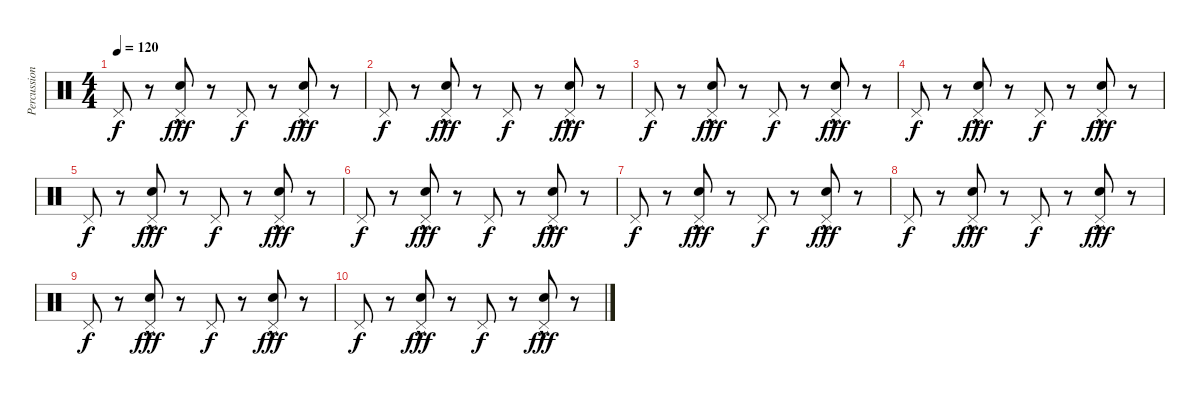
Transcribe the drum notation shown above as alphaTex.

\track ("Percussion" "Percussion") {instrument percussion}
\staff {score}
\articulation defaults
\ts (4 4)
\tempo 120
\clef neutral
\ks c "Pedal Hi-Hat (hit)".8{dy f}
r.8 ("Snare (hit) 2"{hac} "Pedal Hi-Hat (hit)").8{dy fff} r.8 "Pedal Hi-Hat (hit)".8{dy f} r.8 ("Snare (hit) 2"{hac} "Pedal Hi-Hat (hit)").8{dy fff} r.8 |
"Pedal Hi-Hat (hit)".8{dy f} r.8 ("Snare (hit) 2"{hac} "Pedal Hi-Hat (hit)").8{dy fff} r.8 "Pedal Hi-Hat (hit)".8{dy f} r.8 ("Snare (hit) 2"{hac} "Pedal Hi-Hat (hit)").8{dy fff} r.8 |
"Pedal Hi-Hat (hit)".8{dy f} r.8 ("Snare (hit) 2"{hac} "Pedal Hi-Hat (hit)").8{dy fff} r.8 "Pedal Hi-Hat (hit)".8{dy f} r.8 ("Snare (hit) 2"{hac} "Pedal Hi-Hat (hit)").8{dy fff} r.8 |
"Pedal Hi-Hat (hit)".8{dy f} r.8 ("Snare (hit) 2"{hac} "Pedal Hi-Hat (hit)").8{dy fff} r.8 "Pedal Hi-Hat (hit)".8{dy f} r.8 ("Snare (hit) 2"{hac} "Pedal Hi-Hat (hit)").8{dy fff} r.8 |
"Pedal Hi-Hat (hit)".8{dy f} r.8 ("Snare (hit) 2"{hac} "Pedal Hi-Hat (hit)").8{dy fff} r.8 "Pedal Hi-Hat (hit)".8{dy f} r.8 ("Snare (hit) 2"{hac} "Pedal Hi-Hat (hit)").8{dy fff} r.8 |
"Pedal Hi-Hat (hit)".8{dy f} r.8 ("Snare (hit) 2"{hac} "Pedal Hi-Hat (hit)").8{dy fff} r.8 "Pedal Hi-Hat (hit)".8{dy f} r.8 ("Snare (hit) 2"{hac} "Pedal Hi-Hat (hit)").8{dy fff} r.8 |
"Pedal Hi-Hat (hit)".8{dy f} r.8 ("Snare (hit) 2"{hac} "Pedal Hi-Hat (hit)").8{dy fff} r.8 "Pedal Hi-Hat (hit)".8{dy f} r.8 ("Snare (hit) 2"{hac} "Pedal Hi-Hat (hit)").8{dy fff} r.8 |
"Pedal Hi-Hat (hit)".8{dy f} r.8 ("Snare (hit) 2"{hac} "Pedal Hi-Hat (hit)").8{dy fff} r.8 "Pedal Hi-Hat (hit)".8{dy f} r.8 ("Snare (hit) 2"{hac} "Pedal Hi-Hat (hit)").8{dy fff} r.8 |
"Pedal Hi-Hat (hit)".8{dy f} r.8 ("Snare (hit) 2"{hac} "Pedal Hi-Hat (hit)").8{dy fff} r.8 "Pedal Hi-Hat (hit)".8{dy f} r.8 ("Snare (hit) 2"{hac} "Pedal Hi-Hat (hit)").8{dy fff} r.8 |
"Pedal Hi-Hat (hit)".8{dy f} r.8 ("Snare (hit) 2"{hac} "Pedal Hi-Hat (hit)").8{dy fff} r.8 "Pedal Hi-Hat (hit)".8{dy f} r.8 ("Snare (hit) 2"{hac} "Pedal Hi-Hat (hit)").8{dy fff} r.8
